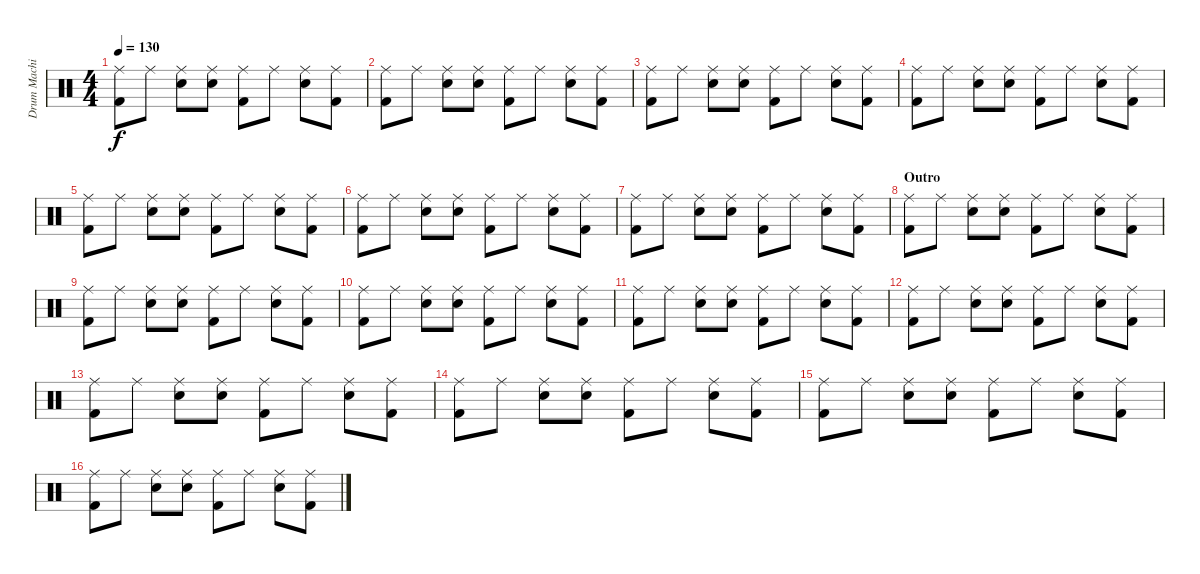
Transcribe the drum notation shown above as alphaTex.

\track ("Drum Machine" "Drum Machi") {instrument percussion}
\staff {score}
\articulation defaults
\ts (4 4)
\tempo 130
\clef neutral
\ks c
("Ride (middle)" "Kick (hit) 2").8{dy f} "Ride (middle)".8 ("Ride (middle)" "Snare (hit) 2").8 ("Ride (middle)" "Snare (hit) 2").8 ("Ride (middle)" "Kick (hit) 2").8 "Ride (middle)".8 ("Ride (middle)" "Snare (hit) 2").8 ("Ride (middle)" "Kick (hit) 2").8 |
("Ride (middle)" "Kick (hit) 2").8 "Ride (middle)".8 ("Ride (middle)" "Snare (hit) 2").8 ("Ride (middle)" "Snare (hit) 2").8 ("Ride (middle)" "Kick (hit) 2").8 "Ride (middle)".8 ("Ride (middle)" "Snare (hit) 2").8 ("Ride (middle)" "Kick (hit) 2").8 |
("Ride (middle)" "Kick (hit) 2").8 "Ride (middle)".8 ("Ride (middle)" "Snare (hit) 2").8 ("Ride (middle)" "Snare (hit) 2").8 ("Ride (middle)" "Kick (hit) 2").8 "Ride (middle)".8 ("Ride (middle)" "Snare (hit) 2").8 ("Ride (middle)" "Kick (hit) 2").8 |
("Ride (middle)" "Kick (hit) 2").8 "Ride (middle)".8 ("Ride (middle)" "Snare (hit) 2").8 ("Ride (middle)" "Snare (hit) 2").8 ("Ride (middle)" "Kick (hit) 2").8 "Ride (middle)".8 ("Ride (middle)" "Snare (hit) 2").8 ("Ride (middle)" "Kick (hit) 2").8 |
("Ride (middle)" "Kick (hit) 2").8 "Ride (middle)".8 ("Ride (middle)" "Snare (hit) 2").8 ("Ride (middle)" "Snare (hit) 2").8 ("Ride (middle)" "Kick (hit) 2").8 "Ride (middle)".8 ("Ride (middle)" "Snare (hit) 2").8 ("Ride (middle)" "Kick (hit) 2").8 |
("Ride (middle)" "Kick (hit) 2").8 "Ride (middle)".8 ("Ride (middle)" "Snare (hit) 2").8 ("Ride (middle)" "Snare (hit) 2").8 ("Ride (middle)" "Kick (hit) 2").8 "Ride (middle)".8 ("Ride (middle)" "Snare (hit) 2").8 ("Ride (middle)" "Kick (hit) 2").8 |
("Ride (middle)" "Kick (hit) 2").8 "Ride (middle)".8 ("Ride (middle)" "Snare (hit) 2").8 ("Ride (middle)" "Snare (hit) 2").8 ("Ride (middle)" "Kick (hit) 2").8 "Ride (middle)".8 ("Ride (middle)" "Snare (hit) 2").8 ("Ride (middle)" "Kick (hit) 2").8 |
\section ("" "Outro")
("Ride (middle)" "Kick (hit) 2").8 "Ride (middle)".8 ("Ride (middle)" "Snare (hit) 2").8 ("Ride (middle)" "Snare (hit) 2").8 ("Ride (middle)" "Kick (hit) 2").8 "Ride (middle)".8 ("Ride (middle)" "Snare (hit) 2").8 ("Ride (middle)" "Kick (hit) 2").8 |
("Ride (middle)" "Kick (hit) 2").8 "Ride (middle)".8 ("Ride (middle)" "Snare (hit) 2").8 ("Ride (middle)" "Snare (hit) 2").8 ("Ride (middle)" "Kick (hit) 2").8 "Ride (middle)".8 ("Ride (middle)" "Snare (hit) 2").8 ("Ride (middle)" "Kick (hit) 2").8 |
("Ride (middle)" "Kick (hit) 2").8 "Ride (middle)".8 ("Ride (middle)" "Snare (hit) 2").8 ("Ride (middle)" "Snare (hit) 2").8 ("Ride (middle)" "Kick (hit) 2").8 "Ride (middle)".8 ("Ride (middle)" "Snare (hit) 2").8 ("Ride (middle)" "Kick (hit) 2").8 |
("Ride (middle)" "Kick (hit) 2").8 "Ride (middle)".8 ("Ride (middle)" "Snare (hit) 2").8 ("Ride (middle)" "Snare (hit) 2").8 ("Ride (middle)" "Kick (hit) 2").8 "Ride (middle)".8 ("Ride (middle)" "Snare (hit) 2").8 ("Ride (middle)" "Kick (hit) 2").8 |
("Ride (middle)" "Kick (hit) 2").8 "Ride (middle)".8 ("Ride (middle)" "Snare (hit) 2").8 ("Ride (middle)" "Snare (hit) 2").8 ("Ride (middle)" "Kick (hit) 2").8 "Ride (middle)".8 ("Ride (middle)" "Snare (hit) 2").8 ("Ride (middle)" "Kick (hit) 2").8 |
("Ride (middle)" "Kick (hit) 2").8 "Ride (middle)".8 ("Ride (middle)" "Snare (hit) 2").8 ("Ride (middle)" "Snare (hit) 2").8 ("Ride (middle)" "Kick (hit) 2").8 "Ride (middle)".8 ("Ride (middle)" "Snare (hit) 2").8 ("Ride (middle)" "Kick (hit) 2").8 |
("Ride (middle)" "Kick (hit) 2").8 "Ride (middle)".8 ("Ride (middle)" "Snare (hit) 2").8 ("Ride (middle)" "Snare (hit) 2").8 ("Ride (middle)" "Kick (hit) 2").8 "Ride (middle)".8 ("Ride (middle)" "Snare (hit) 2").8 ("Ride (middle)" "Kick (hit) 2").8 |
("Ride (middle)" "Kick (hit) 2").8 "Ride (middle)".8 ("Ride (middle)" "Snare (hit) 2").8 ("Ride (middle)" "Snare (hit) 2").8 ("Ride (middle)" "Kick (hit) 2").8 "Ride (middle)".8 ("Ride (middle)" "Snare (hit) 2").8 ("Ride (middle)" "Kick (hit) 2").8 |
("Ride (middle)" "Kick (hit) 2").8 "Ride (middle)".8 ("Ride (middle)" "Snare (hit) 2").8 ("Ride (middle)" "Snare (hit) 2").8 ("Ride (middle)" "Kick (hit) 2").8 "Ride (middle)".8 ("Ride (middle)" "Snare (hit) 2").8 ("Ride (middle)" "Kick (hit) 2").8
